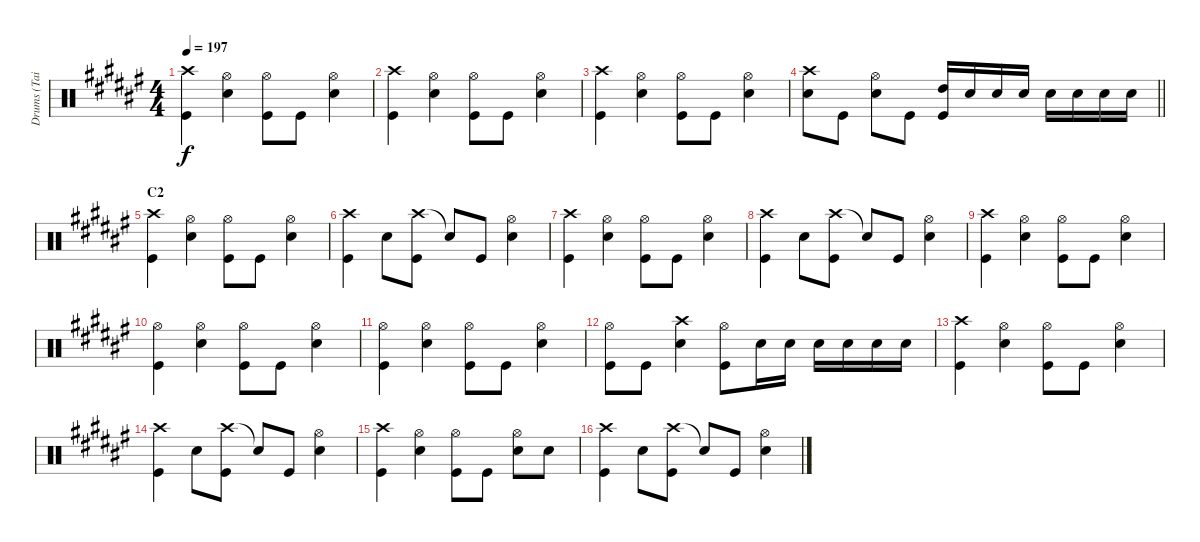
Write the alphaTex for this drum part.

\track ("Drums (Tainaka Ritsu)" "Drums (Tai") {instrument percussion}
\staff {score}
\articulation defaults
\ts (4 4)
\tempo 197
\clef neutral
\ks f#
("Crash high (hit)" "Kick (hit)").4{dy f} ("Hi-Hat (open)" "Snare (hit) 2").4 ("Hi-Hat (open)" "Kick (hit)").8 "Kick (hit)".8 ("Hi-Hat (open)" "Snare (hit) 2").4 |
("Crash high (hit)" "Kick (hit)").4 ("Hi-Hat (open)" "Snare (hit) 2").4 ("Hi-Hat (open)" "Kick (hit)").8 "Kick (hit)".8 ("Hi-Hat (open)" "Snare (hit) 2").4 |
("Crash high (hit)" "Kick (hit)").4 ("Hi-Hat (open)" "Snare (hit) 2").4 ("Hi-Hat (open)" "Kick (hit)").8 "Kick (hit)".8 ("Hi-Hat (open)" "Snare (hit) 2").4 |
\barLineRight lightlight
("Crash high (hit)" "Snare (hit) 2").8 "Kick (hit)".8 ("Hi-Hat (open)" "Snare (hit) 2").8 "Kick (hit)".8 ("High Tom (hit)" "Kick (hit)").16 "Snare (hit) 2".16 "Snare (hit) 2".16 "Snare (hit) 2".16 "Snare (hit) 2".16 "Snare (hit) 2".16 "Snare (hit) 2".16 "Snare (hit) 2".16 |
\section ("" "C2")
("Crash high (hit)" "Kick (hit)").4 ("Hi-Hat (open)" "Snare (hit) 2").4 ("Hi-Hat (open)" "Kick (hit)").8 "Kick (hit)".8 ("Hi-Hat (open)" "Snare (hit) 2").4 |
("Crash high (hit)" "Kick (hit)").4 "Snare (hit) 2".8 ("Crash high (hit)" "Kick (hit)").8 "Snare (hit)"{t}.8 "Kick (hit)".8 ("Hi-Hat (open)" "Snare (hit) 2").4 |
("Crash high (hit)" "Kick (hit)").4 ("Hi-Hat (open)" "Snare (hit) 2").4 ("Hi-Hat (open)" "Kick (hit)").8 "Kick (hit)".8 ("Hi-Hat (open)" "Snare (hit) 2").4 |
("Crash high (hit)" "Kick (hit)").4 "Snare (hit) 2".8 ("Crash high (hit)" "Kick (hit)").8 "Snare (hit)"{t}.8 "Kick (hit)".8 ("Hi-Hat (open)" "Snare (hit) 2").4 |
("Crash high (hit)" "Kick (hit)").4 ("Hi-Hat (open)" "Snare (hit) 2").4 ("Hi-Hat (open)" "Kick (hit)").8 "Kick (hit)".8 ("Hi-Hat (open)" "Snare (hit) 2").4 |
("Hi-Hat (open)" "Kick (hit)").4 ("Hi-Hat (open)" "Snare (hit) 2").4 ("Hi-Hat (open)" "Kick (hit)").8 "Kick (hit)".8 ("Hi-Hat (open)" "Snare (hit) 2").4 |
("Hi-Hat (open)" "Kick (hit)").4 ("Hi-Hat (open)" "Snare (hit) 2").4 ("Hi-Hat (open)" "Kick (hit)").8 "Kick (hit)".8 ("Hi-Hat (open)" "Snare (hit) 2").4 |
("Hi-Hat (open)" "Kick (hit)").8 "Kick (hit)".8 ("Crash high (hit)" "Snare (hit) 2").4 ("Hi-Hat (open)" "Kick (hit)").8 "Snare (hit) 2".16 "Snare (hit) 2".16 "Snare (hit) 2".16 "Snare (hit) 2".16 "Snare (hit) 2".16 "Snare (hit) 2".16 |
("Crash high (hit)" "Kick (hit)").4 ("Hi-Hat (open)" "Snare (hit) 2").4 ("Hi-Hat (open)" "Kick (hit)").8 "Kick (hit)".8 ("Hi-Hat (open)" "Snare (hit) 2").4 |
("Crash high (hit)" "Kick (hit)").4 "Snare (hit) 2".8 ("Crash high (hit)" "Kick (hit)").8 "Snare (hit)"{t}.8 "Kick (hit)".8 ("Hi-Hat (open)" "Snare (hit) 2").4 |
("Crash high (hit)" "Kick (hit)").4 ("Hi-Hat (open)" "Snare (hit) 2").4 ("Hi-Hat (open)" "Kick (hit)").8 "Kick (hit)".8 ("Hi-Hat (open)" "Snare (hit) 2").8 "Snare (hit) 2".8 |
("Crash high (hit)" "Kick (hit)").4 "Snare (hit) 2".8 ("Crash high (hit)" "Kick (hit)").8 "Snare (hit)"{t}.8 "Kick (hit)".8 ("Hi-Hat (open)" "Snare (hit) 2").4
